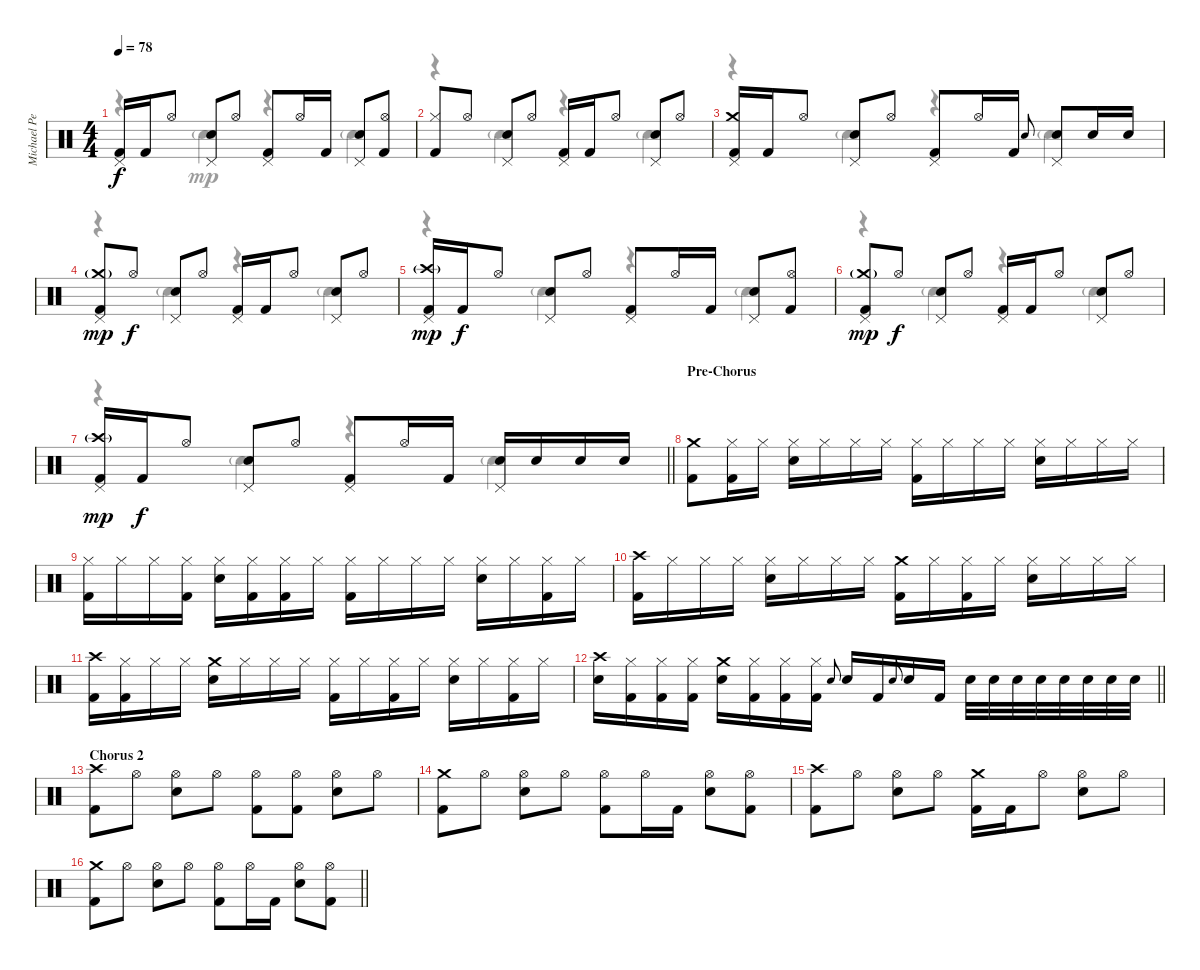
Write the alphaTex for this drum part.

\track ("Michael Pedicone [Drums]" "Michael Pe") {instrument percussion}
\staff {score}
\articulation defaults
\voice
\ts (4 4)
\tempo 78
\clef neutral
\ks c
("Pedal Hi-Hat (hit)" "Kick (hit) 2").16{dy f} "Kick (hit) 2".16 "Hi-Hat (open)".8 ("Pedal Hi-Hat (hit)" "Electric Snare (hit)").8 "Hi-Hat (open)".8 ("Pedal Hi-Hat (hit)" "Kick (hit) 2").8 "Hi-Hat (open)".16 "Kick (hit) 2".16 ("Pedal Hi-Hat (hit)" "Electric Snare (hit)").8 ("Hi-Hat (open)" "Kick (hit) 2").8 |
("Hi-Hat (closed)" "Kick (hit) 2").8 "Hi-Hat (open)".8 ("Pedal Hi-Hat (hit)" "Electric Snare (hit)").8 "Hi-Hat (open)".8 ("Pedal Hi-Hat (hit)" "Kick (hit) 2").16 "Kick (hit) 2".16 "Hi-Hat (open)".8 ("Pedal Hi-Hat (hit)" "Electric Snare (hit)").8 "Hi-Hat (open)".8 |
("Crash medium (hit)" "Pedal Hi-Hat (hit)" "Kick (hit) 2").16 "Kick (hit) 2".16 "Hi-Hat (open)".8 ("Pedal Hi-Hat (hit)" "Electric Snare (hit)").8 "Hi-Hat (open)".8 ("Pedal Hi-Hat (hit)" "Kick (hit) 2").8 "Hi-Hat (open)".16 "Kick (hit) 2".16 "Electric Snare (hit)".8{gr onbeat} ("Pedal Hi-Hat (hit)" "Electric Snare (hit)").8 "Electric Snare (hit)".16 "Electric Snare (hit)".16 |
("Crash medium (hit)"{g} "Pedal Hi-Hat (hit)" "Kick (hit) 2").8{dy mp} "Hi-Hat (open)".8{dy f} ("Pedal Hi-Hat (hit)" "Electric Snare (hit)").8 "Hi-Hat (open)".8 ("Pedal Hi-Hat (hit)" "Kick (hit) 2").16 "Kick (hit) 2".16 "Hi-Hat (open)".8 ("Pedal Hi-Hat (hit)" "Electric Snare (hit)").8 "Hi-Hat (open)".8 |
("Crash high (hit)"{g} "Pedal Hi-Hat (hit)" "Kick (hit) 2").16{dy mp} "Kick (hit) 2".16{dy f} "Hi-Hat (open)".8 ("Pedal Hi-Hat (hit)" "Electric Snare (hit)").8 "Hi-Hat (open)".8 ("Pedal Hi-Hat (hit)" "Kick (hit) 2").8 "Hi-Hat (open)".16 "Kick (hit) 2".16 ("Pedal Hi-Hat (hit)" "Electric Snare (hit)").8 ("Hi-Hat (open)" "Kick (hit) 2").8 |
("Crash medium (hit)"{g} "Pedal Hi-Hat (hit)" "Kick (hit) 2").8{dy mp} "Hi-Hat (open)".8{dy f} ("Pedal Hi-Hat (hit)" "Electric Snare (hit)").8 "Hi-Hat (open)".8 ("Pedal Hi-Hat (hit)" "Kick (hit) 2").16 "Kick (hit) 2".16 "Hi-Hat (open)".8 ("Pedal Hi-Hat (hit)" "Electric Snare (hit)").8 "Hi-Hat (open)".8 |
\barLineRight lightlight
("Crash high (hit)"{g} "Pedal Hi-Hat (hit)" "Kick (hit) 2").16{dy mp} "Kick (hit) 2".16{dy f} "Hi-Hat (open)".8 ("Pedal Hi-Hat (hit)" "Electric Snare (hit)").8 "Hi-Hat (open)".8 ("Pedal Hi-Hat (hit)" "Kick (hit) 2").8 "Hi-Hat (open)".16 "Kick (hit) 2".16 ("Pedal Hi-Hat (hit)" "Electric Snare (hit)").16 "Electric Snare (hit)".16 "Electric Snare (hit)".16 "Electric Snare (hit)".16 |
\section ("" "Pre-Chorus")
("Crash medium (hit)" "Kick (hit) 2").8 ("Hi-Hat (closed)" "Kick (hit) 2").16 "Hi-Hat (closed)".16 ("Hi-Hat (closed)" "Electric Snare (hit)").16 "Hi-Hat (closed)".16 "Hi-Hat (closed)".16 "Hi-Hat (closed)".16 ("Hi-Hat (closed)" "Kick (hit) 2").16 "Hi-Hat (closed)".16 "Hi-Hat (closed)".16 "Hi-Hat (closed)".16 ("Hi-Hat (closed)" "Electric Snare (hit)").16 "Hi-Hat (closed)".16 "Hi-Hat (closed)".16 "Hi-Hat (closed)".16 |
("Hi-Hat (closed)" "Kick (hit) 2").16 "Hi-Hat (closed)".16 "Hi-Hat (closed)".16 ("Hi-Hat (closed)" "Kick (hit) 2").16 ("Hi-Hat (closed)" "Electric Snare (hit)").16 ("Hi-Hat (closed)" "Kick (hit) 2").16 ("Hi-Hat (closed)" "Kick (hit) 2").16 "Hi-Hat (closed)".16 ("Hi-Hat (closed)" "Kick (hit) 2").16 "Hi-Hat (closed)".16 "Hi-Hat (closed)".16 "Hi-Hat (closed)".16 ("Hi-Hat (closed)" "Electric Snare (hit)").16 "Hi-Hat (closed)".16 ("Hi-Hat (closed)" "Kick (hit) 2").16 "Hi-Hat (closed)".16 |
("Crash high (hit)" "Kick (hit) 2").16 "Hi-Hat (closed)".16 "Hi-Hat (closed)".16 "Hi-Hat (closed)".16 ("Hi-Hat (closed)" "Electric Snare (hit)").16 "Hi-Hat (closed)".16 "Hi-Hat (closed)".16 "Hi-Hat (closed)".16 ("Crash medium (hit)" "Kick (hit) 2").16 "Hi-Hat (closed)".16 ("Hi-Hat (closed)" "Kick (hit) 2").16 "Hi-Hat (closed)".16 ("Hi-Hat (closed)" "Electric Snare (hit)").16 "Hi-Hat (closed)".16 "Hi-Hat (closed)".16 "Hi-Hat (closed)".16 |
("Crash high (hit)" "Kick (hit) 2").16 ("Hi-Hat (closed)" "Kick (hit) 2").16 "Hi-Hat (closed)".16 "Hi-Hat (closed)".16 ("Crash medium (hit)" "Electric Snare (hit)").16 "Hi-Hat (closed)".16 "Hi-Hat (closed)".16 "Hi-Hat (closed)".16 ("Hi-Hat (closed)" "Kick (hit) 2").16 "Hi-Hat (closed)".16 ("Hi-Hat (closed)" "Kick (hit) 2").16 "Hi-Hat (closed)".16 ("Hi-Hat (closed)" "Electric Snare (hit)").16 "Hi-Hat (closed)".16 ("Hi-Hat (closed)" "Kick (hit) 2").16 "Hi-Hat (closed)".16 |
\barLineRight lightlight
("Crash high (hit)" "Electric Snare (hit)").16 ("Hi-Hat (closed)" "Kick (hit) 2").16 ("Hi-Hat (closed)" "Kick (hit) 2").16 ("Hi-Hat (closed)" "Kick (hit) 2").16 ("Crash medium (hit)" "Electric Snare (hit)").16 ("Hi-Hat (closed)" "Kick (hit) 2").16 ("Hi-Hat (closed)" "Kick (hit) 2").16 ("Hi-Hat (closed)" "Kick (hit) 2").16 "Electric Snare (hit)".8{gr onbeat} "Electric Snare (hit)".16 "Kick (hit) 2".16 "Electric Snare (hit)".8{gr onbeat} "Electric Snare (hit)".16 "Kick (hit) 2".16 "Electric Snare (hit)".32 "Electric Snare (hit)".32 "Electric Snare (hit)".32 "Electric Snare (hit)".32 "Electric Snare (hit)".32 "Electric Snare (hit)".32 "Electric Snare (hit)".32 "Electric Snare (hit)".32 |
\section ("" "Chorus 2")
("Crash high (hit)" "Kick (hit) 2").8 "Hi-Hat (open)".8 ("Hi-Hat (open)" "Electric Snare (hit)").8 "Hi-Hat (open)".8 ("Hi-Hat (open)" "Kick (hit) 2").8 ("Hi-Hat (open)" "Kick (hit) 2").8 ("Hi-Hat (open)" "Electric Snare (hit)").8 "Hi-Hat (open)".8 |
("Crash medium (hit)" "Kick (hit) 2").8 "Hi-Hat (open)".8 ("Hi-Hat (open)" "Electric Snare (hit)").8 "Hi-Hat (open)".8 ("Hi-Hat (open)" "Kick (hit) 2").8 "Hi-Hat (open)".16 "Kick (hit) 2".16 ("Hi-Hat (open)" "Electric Snare (hit)").8 ("Hi-Hat (open)" "Kick (hit) 2").8 |
("Crash high (hit)" "Kick (hit) 2").8 "Hi-Hat (open)".8 ("Hi-Hat (open)" "Electric Snare (hit)").8 "Hi-Hat (open)".8 ("Crash medium (hit)" "Kick (hit) 2").16 "Kick (hit) 2".16 "Hi-Hat (open)".8 ("Hi-Hat (open)" "Electric Snare (hit)").8 "Hi-Hat (open)".8 |
\barLineRight lightlight
("Crash medium (hit)" "Kick (hit) 2").8 "Hi-Hat (open)".8 ("Hi-Hat (open)" "Electric Snare (hit)").8 "Hi-Hat (open)".8 ("Hi-Hat (open)" "Kick (hit) 2").8 "Hi-Hat (open)".16 "Kick (hit) 2".16 ("Hi-Hat (open)" "Electric Snare (hit)").8 ("Hi-Hat (open)" "Kick (hit) 2").8
\voice
\clef neutral
\ottava regular
\simile none
\ks c
r.4{dy mp} "Hand Clap (hit)"{g}.4 r.4 "Hand Clap (hit)"{g}.4 |
r.4 "Hand Clap (hit)"{g}.4 r.4 "Hand Clap (hit)"{g}.4 |
r.4 "Hand Clap (hit)"{g}.4 r.4 "Hand Clap (hit)"{g}.4 |
r.4 "Hand Clap (hit)"{g}.4 r.4 "Hand Clap (hit)"{g}.4 |
r.4 "Hand Clap (hit)"{g}.4 r.4 "Hand Clap (hit)"{g}.4 |
r.4 "Hand Clap (hit)"{g}.4 r.4 "Hand Clap (hit)"{g}.4 |
\barLineRight lightlight
r.4 "Hand Clap (hit)"{g}.4 r.4 "Hand Clap (hit)"{g}.4 |
|
|
|
|
\barLineRight lightlight
|
|
|
|
\barLineRight lightlight
